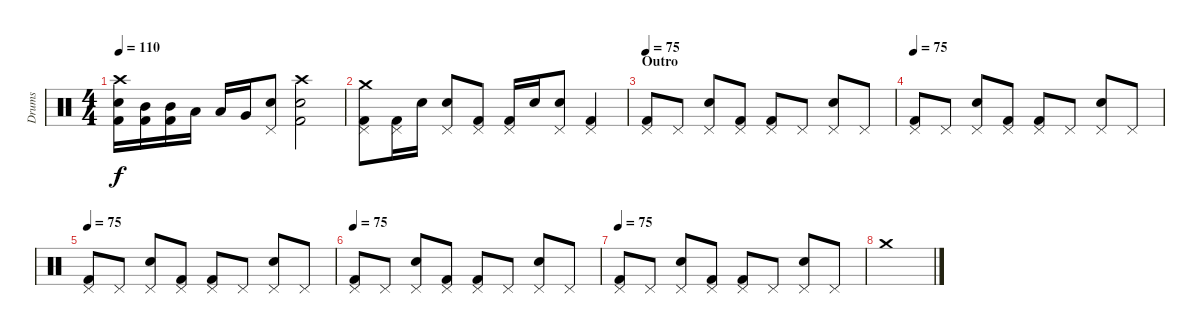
\track ("Drums" "Drums") {instrument percussion}
\staff {score}
\articulation defaults
\ts (4 4)
\tempo 110
\clef neutral
\ks c
("Crash high (hit)" "Kick (hit) 2" "Electric Snare (hit)").16{dy f volume 13} ("Mid Tom (hit)" "Kick (hit) 2").16 ("Mid Tom (hit)" "Kick (hit) 2").16 "Low Tom (hit)".16 "Low Tom (hit)".16 "Very Low Tom (hit)".16 ("Electric Snare (hit)" "Pedal Hi-Hat (hit)").8 ("Crash high (hit)" "Kick (hit) 2" "Electric Snare (hit)").2 |
("Crash medium (hit)" "Kick (hit) 2" "Pedal Hi-Hat (hit)").8 ("Kick (hit) 2" "Pedal Hi-Hat (hit)").16 "Electric Snare (hit)".16 ("Electric Snare (hit)" "Pedal Hi-Hat (hit)").8 ("Kick (hit) 2" "Pedal Hi-Hat (hit)").8 ("Kick (hit) 2" "Pedal Hi-Hat (hit)").16 "Electric Snare (hit)".16 ("Electric Snare (hit)" "Pedal Hi-Hat (hit)").8 ("Kick (hit) 2" "Pedal Hi-Hat (hit)").4 |
\section ("" "Outro")
\tempo 75
("Kick (hit) 2" "Pedal Hi-Hat (hit)").8 "Pedal Hi-Hat (hit)".8 ("Electric Snare (hit)" "Pedal Hi-Hat (hit)").8 ("Kick (hit) 2" "Pedal Hi-Hat (hit)").8 ("Kick (hit) 2" "Pedal Hi-Hat (hit)").8 "Pedal Hi-Hat (hit)".8 ("Electric Snare (hit)" "Pedal Hi-Hat (hit)").8 "Pedal Hi-Hat (hit)".8 |
\tempo 75
("Kick (hit) 2" "Pedal Hi-Hat (hit)").8 "Pedal Hi-Hat (hit)".8 ("Electric Snare (hit)" "Pedal Hi-Hat (hit)").8 ("Kick (hit) 2" "Pedal Hi-Hat (hit)").8 ("Kick (hit) 2" "Pedal Hi-Hat (hit)").8 "Pedal Hi-Hat (hit)".8 ("Electric Snare (hit)" "Pedal Hi-Hat (hit)").8 "Pedal Hi-Hat (hit)".8 |
\tempo 75
("Kick (hit) 2" "Pedal Hi-Hat (hit)").8 "Pedal Hi-Hat (hit)".8 ("Electric Snare (hit)" "Pedal Hi-Hat (hit)").8 ("Kick (hit) 2" "Pedal Hi-Hat (hit)").8 ("Kick (hit) 2" "Pedal Hi-Hat (hit)").8 "Pedal Hi-Hat (hit)".8 ("Electric Snare (hit)" "Pedal Hi-Hat (hit)").8 "Pedal Hi-Hat (hit)".8 |
\tempo 75
("Kick (hit) 2" "Pedal Hi-Hat (hit)").8 "Pedal Hi-Hat (hit)".8 ("Electric Snare (hit)" "Pedal Hi-Hat (hit)").8 ("Kick (hit) 2" "Pedal Hi-Hat (hit)").8 ("Kick (hit) 2" "Pedal Hi-Hat (hit)").8 "Pedal Hi-Hat (hit)".8 ("Electric Snare (hit)" "Pedal Hi-Hat (hit)").8 "Pedal Hi-Hat (hit)".8 |
\tempo 75
("Kick (hit) 2" "Pedal Hi-Hat (hit)").8 "Pedal Hi-Hat (hit)".8 ("Electric Snare (hit)" "Pedal Hi-Hat (hit)").8 ("Kick (hit) 2" "Pedal Hi-Hat (hit)").8 ("Kick (hit) 2" "Pedal Hi-Hat (hit)").8 "Pedal Hi-Hat (hit)".8 ("Electric Snare (hit)" "Pedal Hi-Hat (hit)").8 "Pedal Hi-Hat (hit)".8 |
"Crash medium (hit)".1
